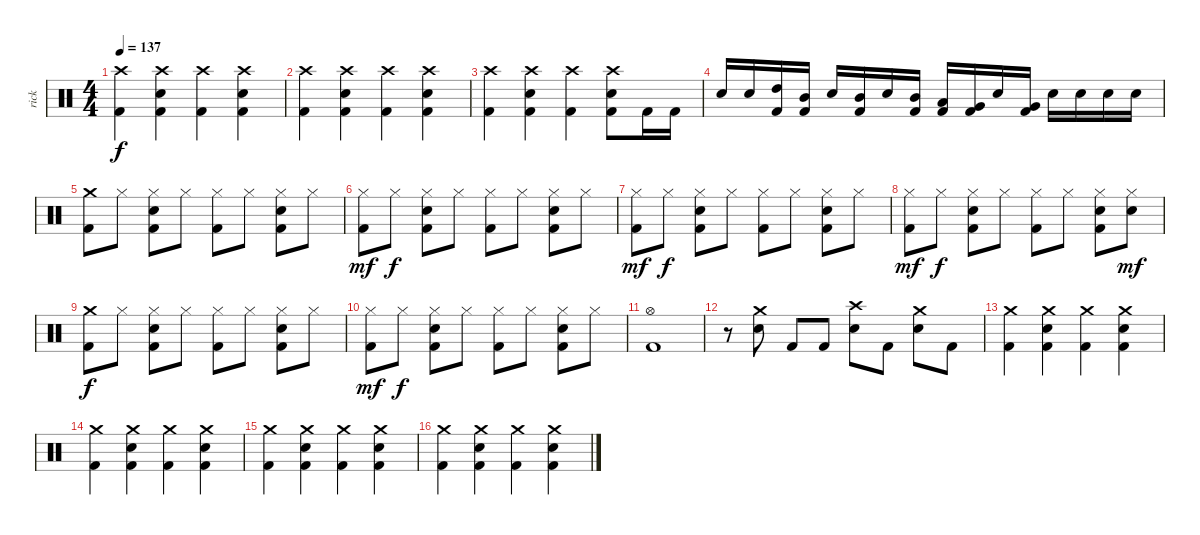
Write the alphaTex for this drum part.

\track ("rick" "rick") {instrument percussion}
\staff {score}
\articulation defaults
\ts (4 4)
\tempo 137
\clef neutral
\ks c
("Crash high (hit)" "Kick (hit) 2").4{dy f} ("Crash high (hit)" "Electric Snare (hit)" "Kick (hit) 2").4 ("Crash high (hit)" "Kick (hit) 2").4 ("Crash high (hit)" "Electric Snare (hit)" "Kick (hit) 2").4 |
("Crash high (hit)" "Kick (hit) 2").4 ("Crash high (hit)" "Electric Snare (hit)" "Kick (hit) 2").4 ("Crash high (hit)" "Kick (hit) 2").4 ("Crash high (hit)" "Electric Snare (hit)" "Kick (hit) 2").4 |
("Crash high (hit)" "Kick (hit) 2").4 ("Crash high (hit)" "Electric Snare (hit)" "Kick (hit) 2").4 ("Crash high (hit)" "Kick (hit) 2").4 ("Crash high (hit)" "Electric Snare (hit)" "Kick (hit) 2").8 "Kick (hit) 2".16 "Kick (hit) 2".16 |
"Electric Snare (hit)".16 "Electric Snare (hit)".16 ("High Tom (hit)" "Kick (hit) 2").16 ("Mid Tom (hit)" "Kick (hit) 2").16 "Electric Snare (hit)".16 ("Mid Tom (hit)" "Kick (hit) 2").16 "Electric Snare (hit)".16 ("Mid Tom (hit)" "Kick (hit) 2").16 ("Low Tom (hit)" "Kick (hit) 2").16 ("Very Low Tom (hit)" "Kick (hit) 2").16 "Electric Snare (hit)".16 ("Very Low Tom (hit)" "Kick (hit) 2").16 "Electric Snare (hit)".16 "Electric Snare (hit)".16 "Electric Snare (hit)".16 "Electric Snare (hit)".16 |
("Crash medium (hit)" "Kick (hit) 2").8 "Hi-Hat (closed)".8 ("Hi-Hat (closed)" "Electric Snare (hit)" "Kick (hit) 2").8 "Hi-Hat (closed)".8 ("Hi-Hat (closed)" "Kick (hit) 2").8 "Hi-Hat (closed)".8 ("Hi-Hat (closed)" "Electric Snare (hit)" "Kick (hit) 2").8 "Hi-Hat (closed)".8 |
("Hi-Hat (closed)" "Kick (hit) 2").8{dy mf} "Hi-Hat (closed)".8{dy f} ("Hi-Hat (closed)" "Electric Snare (hit)" "Kick (hit) 2").8 "Hi-Hat (closed)".8 ("Hi-Hat (closed)" "Kick (hit) 2").8 "Hi-Hat (closed)".8 ("Hi-Hat (closed)" "Electric Snare (hit)" "Kick (hit) 2").8 "Hi-Hat (closed)".8 |
("Hi-Hat (closed)" "Kick (hit) 2").8{dy mf} "Hi-Hat (closed)".8{dy f} ("Hi-Hat (closed)" "Electric Snare (hit)" "Kick (hit) 2").8 "Hi-Hat (closed)".8 ("Hi-Hat (closed)" "Kick (hit) 2").8 "Hi-Hat (closed)".8 ("Hi-Hat (closed)" "Electric Snare (hit)" "Kick (hit) 2").8 "Hi-Hat (closed)".8 |
("Hi-Hat (closed)" "Kick (hit) 2").8{dy mf} "Hi-Hat (closed)".8{dy f} ("Hi-Hat (closed)" "Electric Snare (hit)" "Kick (hit) 2").8 "Hi-Hat (closed)".8 ("Hi-Hat (closed)" "Kick (hit) 2").8 "Hi-Hat (closed)".8 ("Hi-Hat (closed)" "Electric Snare (hit)" "Kick (hit) 2").8 ("Hi-Hat (closed)" "Electric Snare (hit)").8{dy mf} |
("Crash medium (hit)" "Kick (hit) 2").8{dy f} "Hi-Hat (closed)".8 ("Hi-Hat (closed)" "Electric Snare (hit)" "Kick (hit) 2").8 "Hi-Hat (closed)".8 ("Hi-Hat (closed)" "Kick (hit) 2").8 "Hi-Hat (closed)".8 ("Hi-Hat (closed)" "Electric Snare (hit)" "Kick (hit) 2").8 "Hi-Hat (closed)".8 |
("Hi-Hat (closed)" "Kick (hit) 2").8{dy mf} "Hi-Hat (closed)".8{dy f} ("Hi-Hat (closed)" "Electric Snare (hit)" "Kick (hit) 2").8 "Hi-Hat (closed)".8 ("Hi-Hat (closed)" "Kick (hit) 2").8 "Hi-Hat (closed)".8 ("Hi-Hat (closed)" "Electric Snare (hit)" "Kick (hit) 2").8 "Hi-Hat (closed)".8 |
("Hi-Hat (open)" "Kick (hit) 2").1 |
r.8 ("Crash medium (hit)" "Electric Snare (hit)").8 "Kick (hit) 2".8 "Kick (hit) 2".8 ("Crash high (hit)" "Electric Snare (hit)").8 "Kick (hit) 2".8 ("Crash medium (hit)" "Electric Snare (hit)").8 "Kick (hit) 2".8 |
("Crash medium (hit)" "Kick (hit) 2").4 ("Crash medium (hit)" "Electric Snare (hit)" "Kick (hit) 2").4 ("Crash medium (hit)" "Kick (hit) 2").4 ("Crash medium (hit)" "Electric Snare (hit)" "Kick (hit) 2").4 |
("Crash medium (hit)" "Kick (hit) 2").4 ("Crash medium (hit)" "Electric Snare (hit)" "Kick (hit) 2").4 ("Crash medium (hit)" "Kick (hit) 2").4 ("Crash medium (hit)" "Electric Snare (hit)" "Kick (hit) 2").4 |
("Crash medium (hit)" "Kick (hit) 2").4 ("Crash medium (hit)" "Electric Snare (hit)" "Kick (hit) 2").4 ("Crash medium (hit)" "Kick (hit) 2").4 ("Crash medium (hit)" "Electric Snare (hit)" "Kick (hit) 2").4 |
("Crash medium (hit)" "Kick (hit) 2").4 ("Crash medium (hit)" "Electric Snare (hit)" "Kick (hit) 2").4 ("Crash medium (hit)" "Kick (hit) 2").4 ("Crash medium (hit)" "Electric Snare (hit)" "Kick (hit) 2").4
